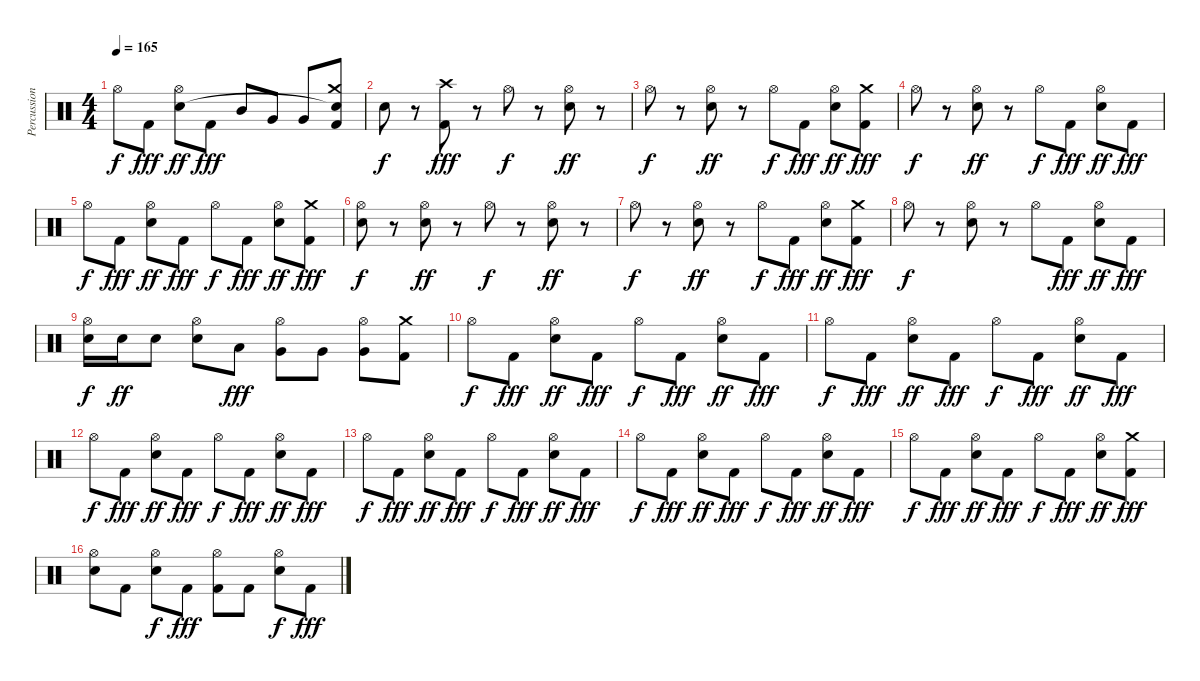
\track ("Percussion" "Percussion") {instrument percussion}
\staff {score}
\articulation defaults
\ts (4 4)
\tempo 165
\clef neutral
\ks c "Hi-Hat (open)".8{dy f} "Kick (hit) 2".8{dy fff}
("Hi-Hat (open)" "Electric Snare (hit)").8{dy ff} "Kick (hit) 2".8{dy fff} "Mid Tom (hit)".8 "Very Low Tom (hit)".8 "Very Low Tom (hit)".8 ("Crash medium (hit)" "Snare (hit)"{t} "Kick (hit) 2").8 |
"Snare (hit)".8{dy f} r.8 ("Crash high (hit)" "Kick (hit) 2").8{dy fff} r.8 "Hi-Hat (open)".8{dy f} r.8 ("Hi-Hat (open)" "Electric Snare (hit)").8{dy ff} r.8 |
"Hi-Hat (open)".8{dy f} r.8 ("Hi-Hat (open)" "Electric Snare (hit)").8{dy ff} r.8 "Hi-Hat (open)".8{dy f} "Kick (hit) 2".8{dy fff} ("Hi-Hat (open)" "Electric Snare (hit)").8{dy ff} ("Crash medium (hit)" "Kick (hit) 2").8{dy fff} |
"Hi-Hat (open)".8{dy f} r.8 ("Hi-Hat (open)" "Electric Snare (hit)").8{dy ff} r.8 "Hi-Hat (open)".8{dy f} "Kick (hit) 2".8{dy fff} ("Hi-Hat (open)" "Electric Snare (hit)").8{dy ff} "Kick (hit) 2".8{dy fff} |
"Hi-Hat (open)".8{dy f} "Kick (hit) 2".8{dy fff} ("Hi-Hat (open)" "Electric Snare (hit)").8{dy ff} "Kick (hit) 2".8{dy fff} "Hi-Hat (open)".8{dy f} "Kick (hit) 2".8{dy fff} ("Hi-Hat (open)" "Electric Snare (hit)").8{dy ff} ("Crash medium (hit)" "Kick (hit) 2").8{dy fff} |
("Hi-Hat (open)" "Snare (hit)").8{dy f} r.8 ("Hi-Hat (open)" "Electric Snare (hit)").8{dy ff} r.8 "Hi-Hat (open)".8{dy f} r.8 ("Hi-Hat (open)" "Electric Snare (hit)").8{dy ff} r.8 |
"Hi-Hat (open)".8{dy f} r.8 ("Hi-Hat (open)" "Electric Snare (hit)").8{dy ff} r.8 "Hi-Hat (open)".8{dy f} "Kick (hit) 2".8{dy fff} ("Hi-Hat (open)" "Electric Snare (hit)").8{dy ff} ("Crash medium (hit)" "Kick (hit) 2").8{dy fff} |
"Hi-Hat (open)".8{dy f} r.8 ("Hi-Hat (open)" "Electric Snare (hit)").8 r.8 "Hi-Hat (open)".8 "Kick (hit) 2".8{dy fff} ("Hi-Hat (open)" "Electric Snare (hit)").8{dy ff} "Kick (hit) 2".8{dy fff} |
("Hi-Hat (open)" "Electric Snare (hit)").16{dy f} "Electric Snare (hit)".16{dy ff} "Electric Snare (hit)".8 ("Hi-Hat (open)" "Electric Snare (hit)").8 "Low Tom (hit)".8{dy fff} ("Hi-Hat (open)" "Very Low Tom (hit)").8 "Very Low Tom (hit)".8 ("Hi-Hat (open)" "Very Low Tom (hit)").8 ("Crash medium (hit)" "Kick (hit) 2").8 |
"Hi-Hat (open)".8{dy f} "Kick (hit) 2".8{dy fff} ("Hi-Hat (open)" "Electric Snare (hit)").8{dy ff} "Kick (hit) 2".8{dy fff} "Hi-Hat (open)".8{dy f} "Kick (hit) 2".8{dy fff} ("Hi-Hat (open)" "Electric Snare (hit)").8{dy ff} "Kick (hit) 2".8{dy fff} |
"Hi-Hat (open)".8{dy f} "Kick (hit) 2".8{dy fff} ("Hi-Hat (open)" "Electric Snare (hit)").8{dy ff} "Kick (hit) 2".8{dy fff} "Hi-Hat (open)".8{dy f} "Kick (hit) 2".8{dy fff} ("Hi-Hat (open)" "Electric Snare (hit)").8{dy ff} "Kick (hit) 2".8{dy fff} |
"Hi-Hat (open)".8{dy f} "Kick (hit) 2".8{dy fff} ("Hi-Hat (open)" "Electric Snare (hit)").8{dy ff} "Kick (hit) 2".8{dy fff} "Hi-Hat (open)".8{dy f} "Kick (hit) 2".8{dy fff} ("Hi-Hat (open)" "Electric Snare (hit)").8{dy ff} "Kick (hit) 2".8{dy fff} |
"Hi-Hat (open)".8{dy f} "Kick (hit) 2".8{dy fff} ("Hi-Hat (open)" "Electric Snare (hit)").8{dy ff} "Kick (hit) 2".8{dy fff} "Hi-Hat (open)".8{dy f} "Kick (hit) 2".8{dy fff} ("Hi-Hat (open)" "Electric Snare (hit)").8{dy ff} "Kick (hit) 2".8{dy fff} |
"Hi-Hat (open)".8{dy f} "Kick (hit) 2".8{dy fff} ("Hi-Hat (open)" "Electric Snare (hit)").8{dy ff} "Kick (hit) 2".8{dy fff} "Hi-Hat (open)".8{dy f} "Kick (hit) 2".8{dy fff} ("Hi-Hat (open)" "Electric Snare (hit)").8{dy ff} "Kick (hit) 2".8{dy fff} |
"Hi-Hat (open)".8{dy f} "Kick (hit) 2".8{dy fff} ("Hi-Hat (open)" "Electric Snare (hit)").8{dy ff} "Kick (hit) 2".8{dy fff} "Hi-Hat (open)".8{dy f} "Kick (hit) 2".8{dy fff} ("Hi-Hat (open)" "Electric Snare (hit)").8{dy ff} ("Crash medium (hit)" "Kick (hit) 2").8{dy fff} |
("Hi-Hat (open)" "Snare (hit)").8 "Kick (hit) 2".8 ("Hi-Hat (open)" "Electric Snare (hit)").8{dy f} "Kick (hit) 2".8{dy fff} ("Hi-Hat (open)" "Kick (hit) 2").8 "Kick (hit) 2".8 ("Hi-Hat (open)" "Electric Snare (hit)").8{dy f} "Kick (hit) 2".8{dy fff}
